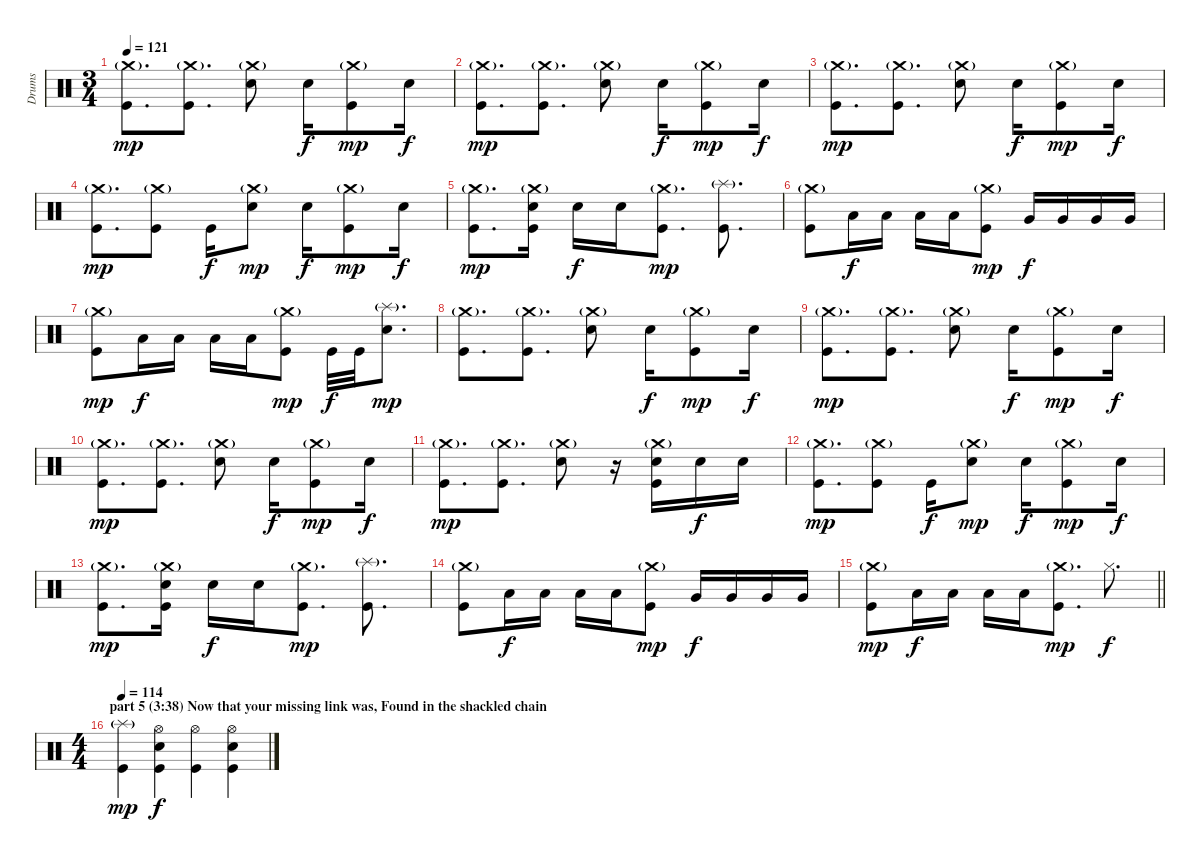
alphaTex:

\track ("Drums" "Drums") {instrument percussion}
\staff {score}
\articulation defaults
\ts (3 4)
\tempo 121
\clef neutral
\ks c
("Crash medium (hit)"{g} "Kick (hit)").8{d dy mp} ("Crash medium (hit)"{g} "Kick (hit)").8{d} ("Crash medium (hit)"{g} "Snare (hit) 2").8 "Snare (hit) 2".16{dy f} ("Crash medium (hit)"{g} "Kick (hit)").8{dy mp} "Snare (hit) 2".16{dy f} |
("Crash medium (hit)"{g} "Kick (hit)").8{d dy mp} ("Crash medium (hit)"{g} "Kick (hit)").8{d} ("Crash medium (hit)"{g} "Snare (hit) 2").8 "Snare (hit) 2".16{dy f} ("Crash medium (hit)"{g} "Kick (hit)").8{dy mp} "Snare (hit) 2".16{dy f} |
("Crash medium (hit)"{g} "Kick (hit)").8{d dy mp} ("Crash medium (hit)"{g} "Kick (hit)").8{d} ("Crash medium (hit)"{g} "Snare (hit) 2").8 "Snare (hit) 2".16{dy f} ("Crash medium (hit)"{g} "Kick (hit)").8{dy mp} "Snare (hit) 2".16{dy f} |
("Crash medium (hit)"{g} "Kick (hit)").8{d dy mp} ("Crash medium (hit)"{g} "Kick (hit)").8 "Kick (hit)".16{dy f} ("Crash medium (hit)"{g} "Snare (hit) 2").8{dy mp} "Snare (hit) 2".16{dy f} ("Crash medium (hit)"{g} "Kick (hit)").8{dy mp} "Snare (hit) 2".16{dy f} |
("Crash medium (hit)"{g} "Kick (hit)").8{d dy mp} ("Crash medium (hit)"{g} "Snare (hit) 2" "Kick (hit)").16 "Snare (hit) 2".16{dy f} "Snare (hit) 2".16 ("Crash medium (hit)"{g} "Kick (hit)").8{d dy mp} ("Splash (hit)"{g} "Kick (hit)").8{d} |
("Crash medium (hit)"{g} "Kick (hit)").8 "Low Tom (hit)".16{dy f} "Low Tom (hit)".16 "Low Tom (hit)".16 "Low Tom (hit)".16 ("Crash medium (hit)"{g} "Kick (hit)").8{dy mp} "Very Low Tom (hit)".16{dy f} "Very Low Tom (hit)".16 "Very Low Tom (hit)".16 "Very Low Tom (hit)".16 |
("Crash medium (hit)"{g} "Kick (hit)").8{dy mp} "Low Floor Tom (hit)".16{dy f} "Low Floor Tom (hit)".16 "Low Floor Tom (hit)".16 "Low Floor Tom (hit)".16 ("Crash medium (hit)"{g} "Kick (hit)").8{dy mp} "Kick (hit)".32{dy f} "Kick (hit)".32 ("Splash (hit)"{g} "Snare (hit) 2").8{d dy mp} |
("Crash medium (hit)"{g} "Kick (hit)").8{d} ("Crash medium (hit)"{g} "Kick (hit)").8{d} ("Crash medium (hit)"{g} "Snare (hit) 2").8 "Snare (hit) 2".16{dy f} ("Crash medium (hit)"{g} "Kick (hit)").8{dy mp} "Snare (hit) 2".16{dy f} |
("Crash medium (hit)"{g} "Kick (hit)").8{d dy mp} ("Crash medium (hit)"{g} "Kick (hit)").8{d} ("Crash medium (hit)"{g} "Snare (hit) 2").8 "Snare (hit) 2".16{dy f} ("Crash medium (hit)"{g} "Kick (hit)").8{dy mp} "Snare (hit) 2".16{dy f} |
("Crash medium (hit)"{g} "Kick (hit)").8{d dy mp} ("Crash medium (hit)"{g} "Kick (hit)").8{d} ("Crash medium (hit)"{g} "Snare (hit) 2").8 "Snare (hit) 2".16{dy f} ("Crash medium (hit)"{g} "Kick (hit)").8{dy mp} "Snare (hit) 2".16{dy f} |
("Crash medium (hit)"{g} "Kick (hit)").8{d dy mp} ("Crash medium (hit)"{g} "Kick (hit)").8{d} ("Crash medium (hit)"{g} "Snare (hit) 2").8 r.16 ("Crash medium (hit)"{g} "Snare (hit) 2" "Kick (hit)").16 "Snare (hit) 2".16{dy f} "Snare (hit) 2".16 |
("Crash medium (hit)"{g} "Kick (hit)").8{d dy mp} ("Crash medium (hit)"{g} "Kick (hit)").8 "Kick (hit)".16{dy f} ("Crash medium (hit)"{g} "Snare (hit) 2").8{dy mp} "Snare (hit) 2".16{dy f} ("Crash medium (hit)"{g} "Kick (hit)").8{dy mp} "Snare (hit) 2".16{dy f} |
("Crash medium (hit)"{g} "Kick (hit)").8{d dy mp} ("Crash medium (hit)"{g} "Snare (hit) 2" "Kick (hit)").16 "Snare (hit) 2".16{dy f} "Snare (hit) 2".16 ("Crash medium (hit)"{g} "Kick (hit)").8{d dy mp} ("Splash (hit)"{g} "Kick (hit)").8{d} |
("Crash medium (hit)"{g} "Kick (hit)").8 "Low Tom (hit)".16{dy f} "Low Tom (hit)".16 "Low Tom (hit)".16 "Low Tom (hit)".16 ("Crash medium (hit)"{g} "Kick (hit)").8{dy mp} "Very Low Tom (hit)".16{dy f} "Very Low Tom (hit)".16 "Very Low Tom (hit)".16 "Very Low Tom (hit)".16 |
\barLineRight lightlight
("Crash medium (hit)"{g} "Kick (hit)").8{dy mp} "Low Floor Tom (hit)".16{dy f} "Low Floor Tom (hit)".16 "Low Floor Tom (hit)".16 "Low Floor Tom (hit)".16 ("Crash medium (hit)"{g} "Kick (hit)").8{d dy mp} "Hi-Hat (closed)".8{d dy f} |
\ts (4 4)
\section ("" "part 5 (3:38) Now that your missing link was, Found in the shackled chain ")
\tempo 114
("Splash (hit)"{g} "Kick (hit)").4{dy mp} ("Hi-Hat (open)" "Snare (hit) 2" "Kick (hit)").4{dy f} ("Hi-Hat (open)" "Kick (hit)").4 ("Hi-Hat (open)" "Snare (hit) 2" "Kick (hit)").4
